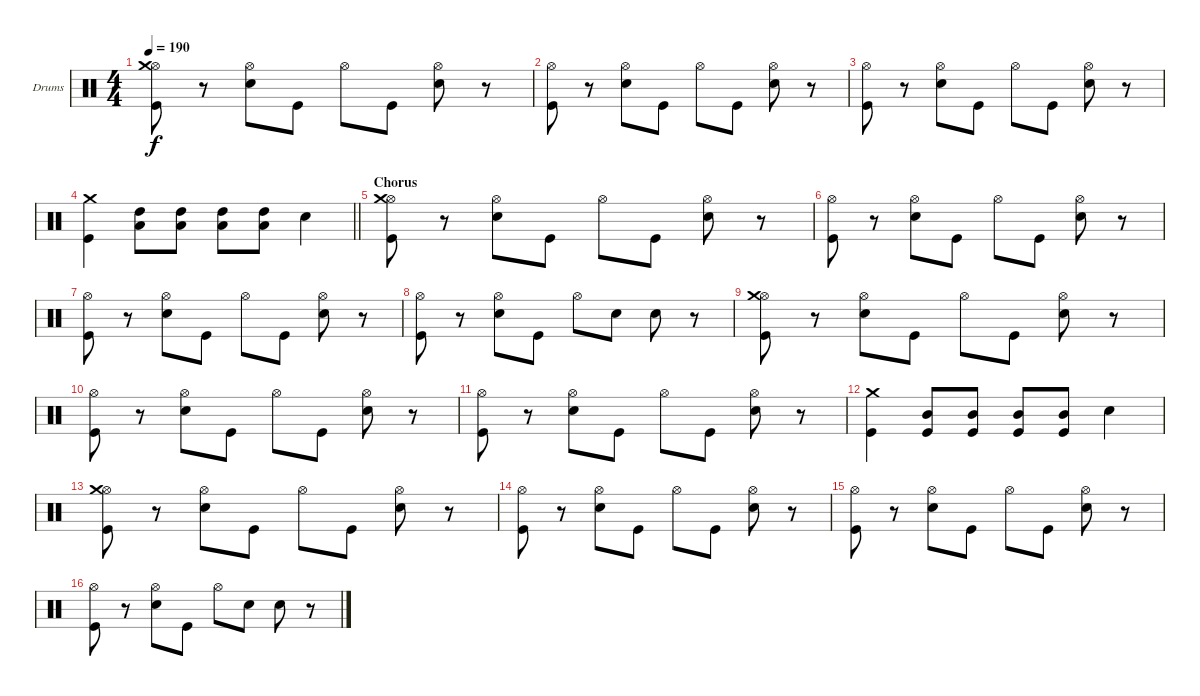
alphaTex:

\bracketExtendMode groupsimilarinstruments
\firstSystemTrackNameOrientation horizontal
\otherSystemsTrackNameOrientation horizontal
\track ("Drumkit" "Drums") {instrument percussion}
\staff {score}
\articulation defaults
\ts (4 4)
\tempo 190
\clef neutral
\ks c
("Hi-Hat (open)" "Crash medium (hit)" "Kick (hit)").8{dy f} r.8 ("Hi-Hat (open)" "Snare (hit) 2").8 "Kick (hit)".8 "Hi-Hat (open)".8 "Kick (hit)".8 ("Hi-Hat (open)" "Snare (hit) 2").8 r.8 |
("Hi-Hat (open)" "Kick (hit)").8 r.8 ("Hi-Hat (open)" "Snare (hit) 2").8 "Kick (hit)".8 "Hi-Hat (open)".8 "Kick (hit)".8 ("Hi-Hat (open)" "Snare (hit) 2").8 r.8 |
("Hi-Hat (open)" "Kick (hit)").8 r.8 ("Hi-Hat (open)" "Snare (hit) 2").8 "Kick (hit)".8 "Hi-Hat (open)".8 "Kick (hit)".8 ("Hi-Hat (open)" "Snare (hit) 2").8 r.8 |
\barLineRight lightlight
("Crash medium (hit)" "Kick (hit)").4 ("High Tom (hit)" "Low Tom (hit)").8 ("High Tom (hit)" "Low Tom (hit)").8 ("High Tom (hit)" "Low Tom (hit)").8 ("High Tom (hit)" "Low Tom (hit)").8 "Snare (hit) 2".4 |
\section ("" "Chorus")
("Hi-Hat (open)" "Crash medium (hit)" "Kick (hit)").8 r.8 ("Hi-Hat (open)" "Snare (hit) 2").8 "Kick (hit)".8 "Hi-Hat (open)".8 "Kick (hit)".8 ("Hi-Hat (open)" "Snare (hit) 2").8 r.8 |
("Hi-Hat (open)" "Kick (hit)").8 r.8 ("Hi-Hat (open)" "Snare (hit) 2").8 "Kick (hit)".8 "Hi-Hat (open)".8 "Kick (hit)".8 ("Hi-Hat (open)" "Snare (hit) 2").8 r.8 |
("Hi-Hat (open)" "Kick (hit)").8 r.8 ("Hi-Hat (open)" "Snare (hit) 2").8 "Kick (hit)".8 "Hi-Hat (open)".8 "Kick (hit)".8 ("Hi-Hat (open)" "Snare (hit) 2").8 r.8 |
("Hi-Hat (open)" "Kick (hit)").8 r.8 ("Hi-Hat (open)" "Snare (hit) 2").8 "Kick (hit)".8 "Hi-Hat (open)".8 "Snare (hit) 2".8 "Snare (hit) 2".8 r.8 |
("Hi-Hat (open)" "Crash medium (hit)" "Kick (hit)").8 r.8 ("Hi-Hat (open)" "Snare (hit) 2").8 "Kick (hit)".8 "Hi-Hat (open)".8 "Kick (hit)".8 ("Hi-Hat (open)" "Snare (hit) 2").8 r.8 |
("Hi-Hat (open)" "Kick (hit)").8 r.8 ("Hi-Hat (open)" "Snare (hit) 2").8 "Kick (hit)".8 "Hi-Hat (open)".8 "Kick (hit)".8 ("Hi-Hat (open)" "Snare (hit) 2").8 r.8 |
("Hi-Hat (open)" "Kick (hit)").8 r.8 ("Hi-Hat (open)" "Snare (hit) 2").8 "Kick (hit)".8 "Hi-Hat (open)".8 "Kick (hit)".8 ("Hi-Hat (open)" "Snare (hit) 2").8 r.8 |
("Crash medium (hit)" "Kick (hit)").4 ("Kick (hit)" "Mid Tom (hit)").8 ("Kick (hit)" "Mid Tom (hit)").8 ("Kick (hit)" "Mid Tom (hit)").8 ("Kick (hit)" "Mid Tom (hit)").8 "Snare (hit) 2".4 |
("Hi-Hat (open)" "Crash medium (hit)" "Kick (hit)").8 r.8 ("Hi-Hat (open)" "Snare (hit) 2").8 "Kick (hit)".8 "Hi-Hat (open)".8 "Kick (hit)".8 ("Hi-Hat (open)" "Snare (hit) 2").8 r.8 |
("Hi-Hat (open)" "Kick (hit)").8 r.8 ("Hi-Hat (open)" "Snare (hit) 2").8 "Kick (hit)".8 "Hi-Hat (open)".8 "Kick (hit)".8 ("Hi-Hat (open)" "Snare (hit) 2").8 r.8 |
("Hi-Hat (open)" "Kick (hit)").8 r.8 ("Hi-Hat (open)" "Snare (hit) 2").8 "Kick (hit)".8 "Hi-Hat (open)".8 "Kick (hit)".8 ("Hi-Hat (open)" "Snare (hit) 2").8 r.8 |
("Hi-Hat (open)" "Kick (hit)").8 r.8 ("Hi-Hat (open)" "Snare (hit) 2").8 "Kick (hit)".8 "Hi-Hat (open)".8 "Snare (hit) 2".8 "Snare (hit) 2".8 r.8
